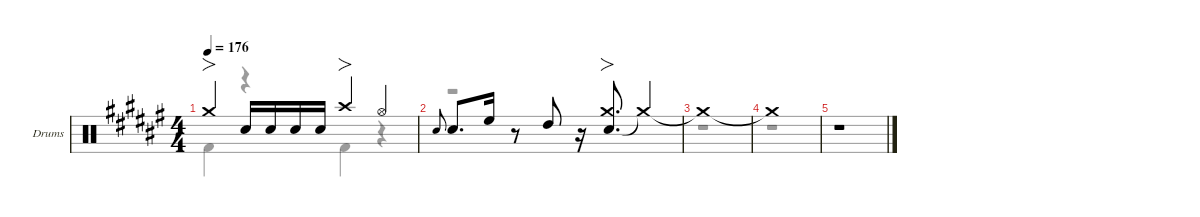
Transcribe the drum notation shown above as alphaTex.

\defaultSystemsLayout 4
\hideDynamics
\bracketExtendMode nobrackets
\firstSystemTrackNameOrientation horizontal
\track ("Drums" "Drums") {defaultSystemsLayout 4 instrument percussion}
\staff {score}
\articulation defaults
\voice
\ts (4 4)
\tempo 176
\clef neutral
\ks f# "Crash medium (hit)"{acc forcenatural}.4{fo dy f beam Up} "Snare (hit) 2"{acc forcenatural}.16{beam Up} "Snare (hit) 2"{acc forcenatural}.16{dy mf beam Up} "Snare (hit) 2"{acc forcenatural}.16{dy f beam Up} "Snare (hit) 2"{acc forcenatural}.16{dy mf beam Up} "Crash high (hit)"{acc forcenatural}.4{fo dy f beam Up} "Hi-Hat (open)"{acc forcenatural}.4{beam Up}
|
"Snare (hit) 2"{acc forcenatural}.8{gr onbeat beam Up} "Snare (hit) 2"{acc forcenatural}.8{d beam Up} "High Floor Tom (hit)"{acc forcenatural}.16{beam Up beam split} r.8{beam Up beam split} "High Tom (hit)"{acc forcenatural}.8{beam Up} r.16{beam Up} ("Snare (hit) 2"{acc forcenatural} "Crash medium (hit)"{acc forcenatural}).8{fo d beam Up} "Crash medium (hit)"{t acc forcenatural}.4{beam Up} |
"Crash medium (hit)"{t acc forcenatural}.1{beam Up} |
"Crash medium (hit)"{t acc forcenatural}.1{beam Up} |
r.1{beam Up}
\voice
\clef neutral
\ottava regular
\simile none
\ks f# "Kick (hit) 2"{acc forcenatural}.4{dy f beam Down}
r.4{beam Down} "Kick (hit) 2"{acc forcenatural}.4{beam Down} r.4{beam Down} |
r.1{beam Down} |
r.1{beam Down} |
r.1{beam Down} |
r.1{beam Down}
